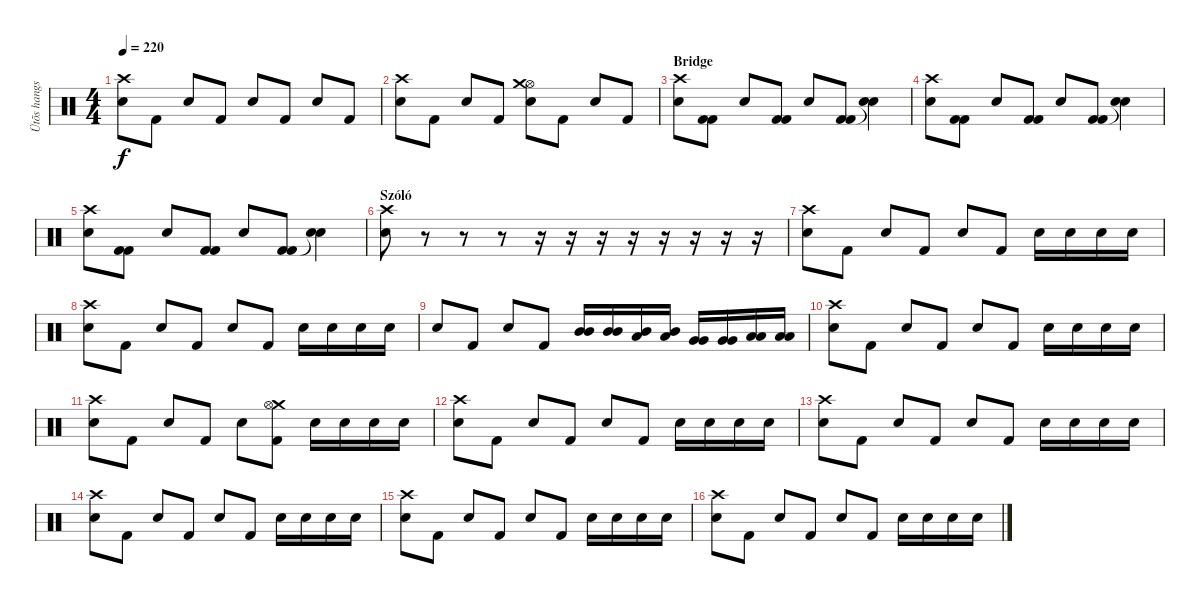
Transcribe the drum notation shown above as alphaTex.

\track ("Ütõs hangszer" "Ütõs hangs") {instrument percussion}
\staff {score}
\articulation defaults
\ts (4 4)
\tempo 220
\clef neutral
\ks c
("Snare (hit) 2" "Crash high (hit)").8{dy f} "Kick (hit) 2".8 "Snare (hit) 2".8 "Kick (hit) 2".8 "Snare (hit) 2".8 "Kick (hit) 2".8 "Snare (hit) 2".8 "Kick (hit) 2".8 |
("Snare (hit) 2" "Crash high (hit)").8 "Kick (hit) 2".8 "Snare (hit) 2".8 "Kick (hit) 2".8 ("Hi-Hat (open)" "Snare (hit) 2" "Crash medium (hit)").8 "Kick (hit) 2".8 "Snare (hit) 2".8 "Kick (hit) 2".8 |
\section ("" "Bridge")
("Snare (hit) 2" "Crash high (hit)").8 ("Kick (hit) 2" "Kick (hit) 2").8 "Snare (hit) 2".8 ("Kick (hit) 2" "Kick (hit) 2").8 "Snare (hit) 2".8 ("Kick (hit) 2" "Kick (hit) 2").8 ("Snare (hit) 2" "Snare (hit)"{t}).4 |
("Snare (hit) 2" "Crash high (hit)").8 ("Kick (hit) 2" "Kick (hit) 2").8 "Snare (hit) 2".8 ("Kick (hit) 2" "Kick (hit) 2").8 "Snare (hit) 2".8 ("Kick (hit) 2" "Kick (hit) 2").8 ("Snare (hit) 2" "Snare (hit)"{t}).4 |
("Snare (hit) 2" "Crash high (hit)").8 ("Kick (hit) 2" "Kick (hit) 2").8 "Snare (hit) 2".8 ("Kick (hit) 2" "Kick (hit) 2").8 "Snare (hit) 2".8 ("Kick (hit) 2" "Kick (hit) 2").8 ("Snare (hit) 2" "Snare (hit)"{t}).4 |
\section ("" "Szóló")
("Snare (hit) 2" "Crash high (hit)").8 r.8 r.8 r.8 r.16 r.16 r.16 r.16 r.16 r.16 r.16 r.16 |
("Snare (hit) 2" "Crash high (hit)").8 "Kick (hit) 2".8 "Snare (hit) 2".8 "Kick (hit) 2".8 "Snare (hit) 2".8 "Kick (hit) 2".8 "Snare (hit) 2".16 "Snare (hit) 2".16 "Snare (hit) 2".16 "Snare (hit) 2".16 |
("Snare (hit) 2" "Crash high (hit)").8 "Kick (hit) 2".8 "Snare (hit) 2".8 "Kick (hit) 2".8 "Snare (hit) 2".8 "Kick (hit) 2".8 "Snare (hit) 2".16 "Snare (hit) 2".16 "Snare (hit) 2".16 "Snare (hit) 2".16 |
"Snare (hit) 2".8 "Kick (hit) 2".8 "Snare (hit) 2".8 "Kick (hit) 2".8 ("Mid Tom (hit)" "Mid Tom (hit)").16 ("Mid Tom (hit)" "Mid Tom (hit)").16 ("Low Tom (hit)" "Mid Tom (hit)").16 ("Low Tom (hit)" "Mid Tom (hit)").16 ("Very Low Tom (hit)" "Very Low Tom (hit)").16 ("Very Low Tom (hit)" "Very Low Tom (hit)").16 ("Low Floor Tom (hit)" "Low Floor Tom (hit)").16 ("Low Floor Tom (hit)" "Low Floor Tom (hit)").16 |
("Snare (hit) 2" "Crash high (hit)").8 "Kick (hit) 2".8 "Snare (hit) 2".8 "Kick (hit) 2".8 "Snare (hit) 2".8 "Kick (hit) 2".8 "Snare (hit) 2".16 "Snare (hit) 2".16 "Snare (hit) 2".16 "Snare (hit) 2".16 |
("Snare (hit) 2" "Crash high (hit)").8 "Kick (hit) 2".8 "Snare (hit) 2".8 "Kick (hit) 2".8 "Snare (hit) 2".8 ("Crash medium (hit)" "Kick (hit) 2" "Hi-Hat (open)").8 "Snare (hit) 2".16 "Snare (hit) 2".16 "Snare (hit) 2".16 "Snare (hit) 2".16 |
("Snare (hit) 2" "Crash high (hit)").8 "Kick (hit) 2".8 "Snare (hit) 2".8 "Kick (hit) 2".8 "Snare (hit) 2".8 "Kick (hit) 2".8 "Snare (hit) 2".16 "Snare (hit) 2".16 "Snare (hit) 2".16 "Snare (hit) 2".16 |
("Snare (hit) 2" "Crash high (hit)").8 "Kick (hit) 2".8 "Snare (hit) 2".8 "Kick (hit) 2".8 "Snare (hit) 2".8 "Kick (hit) 2".8 "Snare (hit) 2".16 "Snare (hit) 2".16 "Snare (hit) 2".16 "Snare (hit) 2".16 |
("Snare (hit) 2" "Crash high (hit)").8 "Kick (hit) 2".8 "Snare (hit) 2".8 "Kick (hit) 2".8 "Snare (hit) 2".8 "Kick (hit) 2".8 "Snare (hit) 2".16 "Snare (hit) 2".16 "Snare (hit) 2".16 "Snare (hit) 2".16 |
("Snare (hit) 2" "Crash high (hit)").8 "Kick (hit) 2".8 "Snare (hit) 2".8 "Kick (hit) 2".8 "Snare (hit) 2".8 "Kick (hit) 2".8 "Snare (hit) 2".16 "Snare (hit) 2".16 "Snare (hit) 2".16 "Snare (hit) 2".16 |
("Snare (hit) 2" "Crash high (hit)").8 "Kick (hit) 2".8 "Snare (hit) 2".8 "Kick (hit) 2".8 "Snare (hit) 2".8 "Kick (hit) 2".8 "Snare (hit) 2".16 "Snare (hit) 2".16 "Snare (hit) 2".16 "Snare (hit) 2".16
